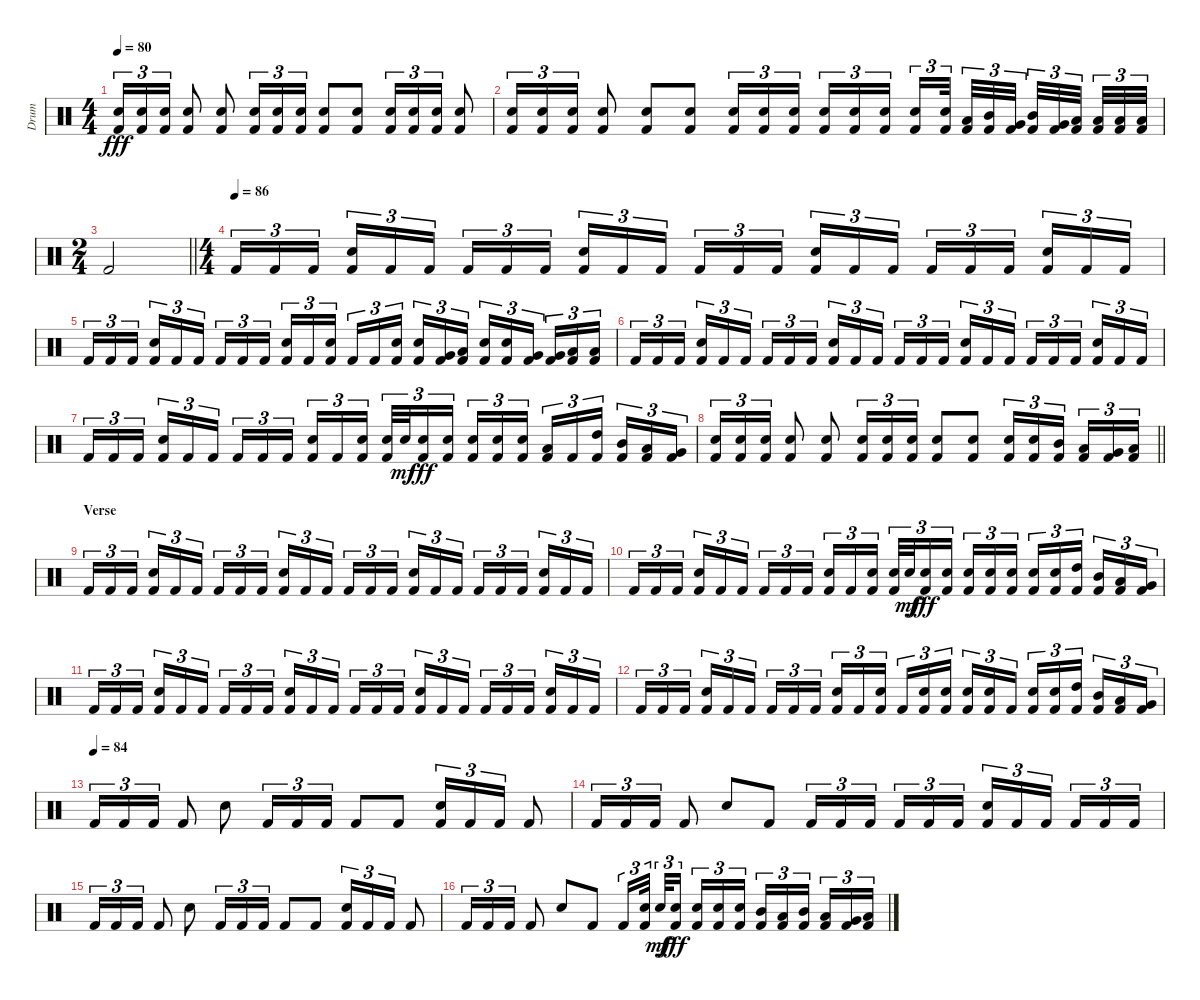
\track ("Drum" "Drum") {instrument percussion}
\staff {score}
\articulation defaults
\ts (4 4)
\tempo 80
\clef neutral
\ks c
("Snare (hit) 2" "Kick (hit) 2").16{tu (3 2) dy fff} ("Snare (hit) 2" "Kick (hit) 2").16{tu (3 2)} ("Snare (hit) 2" "Kick (hit) 2").16{tu (3 2)} ("Snare (hit) 2" "Kick (hit) 2").8 ("Snare (hit) 2" "Kick (hit) 2").8 ("Snare (hit) 2" "Kick (hit) 2").16{tu (3 2)} ("Snare (hit) 2" "Kick (hit) 2").16{tu (3 2)} ("Snare (hit) 2" "Kick (hit) 2").16{tu (3 2)} ("Snare (hit) 2" "Kick (hit) 2").8 ("Snare (hit) 2" "Kick (hit) 2").8 ("Snare (hit) 2" "Kick (hit) 2").16{tu (3 2)} ("Snare (hit) 2" "Kick (hit) 2").16{tu (3 2)} ("Snare (hit) 2" "Kick (hit) 2").16{tu (3 2)} ("Snare (hit) 2" "Kick (hit) 2").8 |
("Snare (hit) 2" "Kick (hit) 2").16{tu (3 2)} ("Snare (hit) 2" "Kick (hit) 2").16{tu (3 2)} ("Snare (hit) 2" "Kick (hit) 2").16{tu (3 2)} ("Snare (hit) 2" "Kick (hit) 2").8 ("Snare (hit) 2" "Kick (hit) 2").8 ("Snare (hit) 2" "Kick (hit) 2").8 ("Snare (hit) 2" "Kick (hit) 2").16{tu (3 2)} ("Snare (hit) 2" "Kick (hit) 2").16{tu (3 2)} ("Snare (hit) 2" "Kick (hit) 2").16{tu (3 2) beam splitsecondary} ("Snare (hit) 2" "Kick (hit) 2").16{tu (3 2)} ("Snare (hit) 2" "Kick (hit) 2").16{tu (3 2)} ("Snare (hit) 2" "Kick (hit) 2").16{tu (3 2)} ("Snare (hit) 2" "Kick (hit) 2").16{tu (3 2)} ("Snare (hit) 2" "Kick (hit) 2").32{tu (3 2) beam splitsecondary} ("Low Floor Tom (hit)" "Kick (hit) 2").32{tu (3 2)} ("Mid Tom (hit)" "Kick (hit) 2").32{tu (3 2)} ("Very Low Tom (hit)" "Kick (hit) 2").32{tu (3 2) beam splitsecondary} ("Mid Tom (hit)" "Kick (hit) 2").32{tu (3 2)} ("Very Low Tom (hit)" "Kick (hit) 2").32{tu (3 2)} ("Low Tom (hit)" "Kick (hit) 2").32{tu (3 2) beam splitsecondary} ("Low Floor Tom (hit)" "Kick (hit) 2").32{tu (3 2)} ("Low Tom (hit)" "Kick (hit) 2").32{tu (3 2)} ("Low Floor Tom (hit)" "Kick (hit) 2").32{tu (3 2)} |
\ts (2 4)
\barLineRight lightlight "Kick (hit) 2".2
|
\ts (4 4)
\section ("" "")
\tempo (86)
"Kick (hit) 2".16{tu (3 2)} "Kick (hit) 2".16{tu (3 2)} "Kick (hit) 2".16{tu (3 2) beam splitsecondary} ("Snare (hit) 2" "Kick (hit) 2").16{tu (3 2)} "Kick (hit) 2".16{tu (3 2)} "Kick (hit) 2".16{tu (3 2)} "Kick (hit) 2".16{tu (3 2)} "Kick (hit) 2".16{tu (3 2)} "Kick (hit) 2".16{tu (3 2) beam splitsecondary} ("Snare (hit) 2" "Kick (hit) 2").16{tu (3 2)} "Kick (hit) 2".16{tu (3 2)} "Kick (hit) 2".16{tu (3 2)} "Kick (hit) 2".16{tu (3 2)} "Kick (hit) 2".16{tu (3 2)} "Kick (hit) 2".16{tu (3 2) beam splitsecondary} ("Snare (hit) 2" "Kick (hit) 2").16{tu (3 2)} "Kick (hit) 2".16{tu (3 2)} "Kick (hit) 2".16{tu (3 2)} "Kick (hit) 2".16{tu (3 2)} "Kick (hit) 2".16{tu (3 2)} "Kick (hit) 2".16{tu (3 2) beam splitsecondary} ("Snare (hit) 2" "Kick (hit) 2").16{tu (3 2)} "Kick (hit) 2".16{tu (3 2)} "Kick (hit) 2".16{tu (3 2)} |
"Kick (hit) 2".16{tu (3 2)} "Kick (hit) 2".16{tu (3 2)} "Kick (hit) 2".16{tu (3 2) beam splitsecondary} ("Snare (hit) 2" "Kick (hit) 2").16{tu (3 2)} "Kick (hit) 2".16{tu (3 2)} "Kick (hit) 2".16{tu (3 2)} "Kick (hit) 2".16{tu (3 2)} "Kick (hit) 2".16{tu (3 2)} "Kick (hit) 2".16{tu (3 2) beam splitsecondary} ("Snare (hit) 2" "Kick (hit) 2").16{tu (3 2)} "Kick (hit) 2".16{tu (3 2)} ("Snare (hit) 2" "Kick (hit) 2").16{tu (3 2)} "Kick (hit) 2".16{tu (3 2)} "Kick (hit) 2".16{tu (3 2)} ("Snare (hit) 2" "Kick (hit) 2").16{tu (3 2) beam splitsecondary} ("Snare (hit) 2" "Kick (hit) 2").16{tu (3 2)} ("Very Low Tom (hit)" "Kick (hit) 2").16{tu (3 2)} ("Low Floor Tom (hit)" "Kick (hit) 2").16{tu (3 2)} ("Snare (hit) 2" "Kick (hit) 2").16{tu (3 2)} ("Snare (hit) 2" "Kick (hit) 2").16{tu (3 2)} ("Very Low Tom (hit)" "Kick (hit) 2").16{tu (3 2) beam splitsecondary} ("Very Low Tom (hit)" "Kick (hit) 2").16{tu (3 2)} ("Low Floor Tom (hit)" "Kick (hit) 2").16{tu (3 2)} ("Low Floor Tom (hit)" "Kick (hit) 2").16{tu (3 2)} |
"Kick (hit) 2".16{tu (3 2)} "Kick (hit) 2".16{tu (3 2)} "Kick (hit) 2".16{tu (3 2) beam splitsecondary} ("Snare (hit) 2" "Kick (hit) 2").16{tu (3 2)} "Kick (hit) 2".16{tu (3 2)} "Kick (hit) 2".16{tu (3 2)} "Kick (hit) 2".16{tu (3 2)} "Kick (hit) 2".16{tu (3 2)} "Kick (hit) 2".16{tu (3 2) beam splitsecondary} ("Snare (hit) 2" "Kick (hit) 2").16{tu (3 2)} "Kick (hit) 2".16{tu (3 2)} "Kick (hit) 2".16{tu (3 2)} "Kick (hit) 2".16{tu (3 2)} "Kick (hit) 2".16{tu (3 2)} "Kick (hit) 2".16{tu (3 2) beam splitsecondary} ("Snare (hit) 2" "Kick (hit) 2").16{tu (3 2)} "Kick (hit) 2".16{tu (3 2)} "Kick (hit) 2".16{tu (3 2)} "Kick (hit) 2".16{tu (3 2)} "Kick (hit) 2".16{tu (3 2)} "Kick (hit) 2".16{tu (3 2) beam splitsecondary} ("Snare (hit) 2" "Kick (hit) 2").16{tu (3 2)} "Kick (hit) 2".16{tu (3 2)} "Kick (hit) 2".16{tu (3 2)} |
"Kick (hit) 2".16{tu (3 2)} "Kick (hit) 2".16{tu (3 2)} "Kick (hit) 2".16{tu (3 2) beam splitsecondary} ("Snare (hit) 2" "Kick (hit) 2").16{tu (3 2)} "Kick (hit) 2".16{tu (3 2)} "Kick (hit) 2".16{tu (3 2)} "Kick (hit) 2".16{tu (3 2)} "Kick (hit) 2".16{tu (3 2)} "Kick (hit) 2".16{tu (3 2) beam splitsecondary} ("Snare (hit) 2" "Kick (hit) 2").16{tu (3 2)} "Kick (hit) 2".16{tu (3 2)} ("Snare (hit) 2" "Kick (hit) 2").16{tu (3 2)} ("Snare (hit) 2" "Kick (hit) 2").32{tu (3 2)} "Snare (hit) 2".32{tu (3 2) dy mf} ("Snare (hit) 2" "Kick (hit) 2").16{tu (3 2) dy fff} ("Snare (hit) 2" "Kick (hit) 2").16{tu (3 2) beam splitsecondary} ("Snare (hit) 2" "Kick (hit) 2").16{tu (3 2)} ("Snare (hit) 2" "Kick (hit) 2").16{tu (3 2)} ("Snare (hit) 2" "Kick (hit) 2").16{tu (3 2)} ("Low Tom (hit)" "Kick (hit) 2").16{tu (3 2)} "Kick (hit) 2".16{tu (3 2)} ("High Tom (hit)" "Kick (hit) 2").16{tu (3 2) beam splitsecondary} ("Mid Tom (hit)" "Kick (hit) 2").16{tu (3 2)} ("Low Tom (hit)" "Kick (hit) 2").16{tu (3 2)} ("Very Low Tom (hit)" "Kick (hit) 2").16{tu (3 2)} |
\barLineRight lightlight
("Snare (hit) 2" "Kick (hit) 2").16{tu (3 2)} ("Snare (hit) 2" "Kick (hit) 2").16{tu (3 2)} ("Snare (hit) 2" "Kick (hit) 2").16{tu (3 2)} ("Snare (hit) 2" "Kick (hit) 2").8 ("Snare (hit) 2" "Kick (hit) 2").8 ("Snare (hit) 2" "Kick (hit) 2").16{tu (3 2)} ("Snare (hit) 2" "Kick (hit) 2").16{tu (3 2)} ("Snare (hit) 2" "Kick (hit) 2").16{tu (3 2)} ("Snare (hit) 2" "Kick (hit) 2").8 ("Snare (hit) 2" "Kick (hit) 2").8 ("Snare (hit) 2" "Kick (hit) 2").16{tu (3 2)} ("Snare (hit) 2" "Kick (hit) 2").16{tu (3 2)} ("Mid Tom (hit)" "Kick (hit) 2").16{tu (3 2) beam splitsecondary} ("Low Tom (hit)" "Kick (hit) 2").16{tu (3 2)} ("Very Low Tom (hit)" "Kick (hit) 2").16{tu (3 2)} ("Low Floor Tom (hit)" "Kick (hit) 2").16{tu (3 2)} |
\section ("" "Verse")
"Kick (hit) 2".16{tu (3 2)} "Kick (hit) 2".16{tu (3 2)} "Kick (hit) 2".16{tu (3 2) beam splitsecondary} ("Snare (hit) 2" "Kick (hit) 2").16{tu (3 2)} "Kick (hit) 2".16{tu (3 2)} "Kick (hit) 2".16{tu (3 2)} "Kick (hit) 2".16{tu (3 2)} "Kick (hit) 2".16{tu (3 2)} "Kick (hit) 2".16{tu (3 2) beam splitsecondary} ("Snare (hit) 2" "Kick (hit) 2").16{tu (3 2)} "Kick (hit) 2".16{tu (3 2)} "Kick (hit) 2".16{tu (3 2)} "Kick (hit) 2".16{tu (3 2)} "Kick (hit) 2".16{tu (3 2)} "Kick (hit) 2".16{tu (3 2) beam splitsecondary} ("Snare (hit) 2" "Kick (hit) 2").16{tu (3 2)} "Kick (hit) 2".16{tu (3 2)} "Kick (hit) 2".16{tu (3 2)} "Kick (hit) 2".16{tu (3 2)} "Kick (hit) 2".16{tu (3 2)} "Kick (hit) 2".16{tu (3 2) beam splitsecondary} ("Snare (hit) 2" "Kick (hit) 2").16{tu (3 2)} "Kick (hit) 2".16{tu (3 2)} "Kick (hit) 2".16{tu (3 2)} |
"Kick (hit) 2".16{tu (3 2)} "Kick (hit) 2".16{tu (3 2)} "Kick (hit) 2".16{tu (3 2) beam splitsecondary} ("Snare (hit) 2" "Kick (hit) 2").16{tu (3 2)} "Kick (hit) 2".16{tu (3 2)} "Kick (hit) 2".16{tu (3 2)} "Kick (hit) 2".16{tu (3 2)} "Kick (hit) 2".16{tu (3 2)} "Kick (hit) 2".16{tu (3 2) beam splitsecondary} ("Snare (hit) 2" "Kick (hit) 2").16{tu (3 2)} "Kick (hit) 2".16{tu (3 2)} ("Snare (hit) 2" "Kick (hit) 2").16{tu (3 2)} ("Snare (hit) 2" "Kick (hit) 2").32{tu (3 2)} "Snare (hit) 2".32{tu (3 2) dy mf} ("Snare (hit) 2" "Kick (hit) 2").16{tu (3 2) dy fff} ("Snare (hit) 2" "Kick (hit) 2").16{tu (3 2) beam splitsecondary} ("Snare (hit) 2" "Kick (hit) 2").16{tu (3 2)} ("Snare (hit) 2" "Kick (hit) 2").16{tu (3 2)} ("Snare (hit) 2" "Kick (hit) 2").16{tu (3 2)} ("Snare (hit) 2" "Kick (hit) 2").16{tu (3 2)} ("Snare (hit) 2" "Kick (hit) 2").16{tu (3 2)} ("High Tom (hit)" "Kick (hit) 2").16{tu (3 2) beam splitsecondary} ("Mid Tom (hit)" "Kick (hit) 2").16{tu (3 2)} ("Low Tom (hit)" "Kick (hit) 2").16{tu (3 2)} ("Very Low Tom (hit)" "Kick (hit) 2").16{tu (3 2)} |
"Kick (hit) 2".16{tu (3 2)} "Kick (hit) 2".16{tu (3 2)} "Kick (hit) 2".16{tu (3 2) beam splitsecondary} ("Snare (hit) 2" "Kick (hit) 2").16{tu (3 2)} "Kick (hit) 2".16{tu (3 2)} "Kick (hit) 2".16{tu (3 2)} "Kick (hit) 2".16{tu (3 2)} "Kick (hit) 2".16{tu (3 2)} "Kick (hit) 2".16{tu (3 2) beam splitsecondary} ("Snare (hit) 2" "Kick (hit) 2").16{tu (3 2)} "Kick (hit) 2".16{tu (3 2)} "Kick (hit) 2".16{tu (3 2)} "Kick (hit) 2".16{tu (3 2)} "Kick (hit) 2".16{tu (3 2)} "Kick (hit) 2".16{tu (3 2) beam splitsecondary} ("Snare (hit) 2" "Kick (hit) 2").16{tu (3 2)} "Kick (hit) 2".16{tu (3 2)} "Kick (hit) 2".16{tu (3 2)} "Kick (hit) 2".16{tu (3 2)} "Kick (hit) 2".16{tu (3 2)} "Kick (hit) 2".16{tu (3 2) beam splitsecondary} ("Snare (hit) 2" "Kick (hit) 2").16{tu (3 2)} "Kick (hit) 2".16{tu (3 2)} "Kick (hit) 2".16{tu (3 2)} |
"Kick (hit) 2".16{tu (3 2)} "Kick (hit) 2".16{tu (3 2)} "Kick (hit) 2".16{tu (3 2) beam splitsecondary} ("Snare (hit) 2" "Kick (hit) 2").16{tu (3 2)} "Kick (hit) 2".16{tu (3 2)} "Kick (hit) 2".16{tu (3 2)} "Kick (hit) 2".16{tu (3 2)} "Kick (hit) 2".16{tu (3 2)} "Kick (hit) 2".16{tu (3 2) beam splitsecondary} ("Snare (hit) 2" "Kick (hit) 2").16{tu (3 2)} "Kick (hit) 2".16{tu (3 2)} ("Snare (hit) 2" "Kick (hit) 2").16{tu (3 2)} "Kick (hit) 2".16{tu (3 2)} ("Snare (hit) 2" "Kick (hit) 2").16{tu (3 2)} ("Snare (hit) 2" "Kick (hit) 2").16{tu (3 2) beam splitsecondary} ("Snare (hit) 2" "Kick (hit) 2").16{tu (3 2)} ("Snare (hit) 2" "Kick (hit) 2").16{tu (3 2)} "Kick (hit) 2".16{tu (3 2)} ("Snare (hit) 2" "Kick (hit) 2").16{tu (3 2)} ("Snare (hit) 2" "Kick (hit) 2").16{tu (3 2)} ("High Tom (hit)" "Kick (hit) 2").16{tu (3 2) beam splitsecondary} ("Mid Tom (hit)" "Kick (hit) 2").16{tu (3 2)} ("Low Tom (hit)" "Kick (hit) 2").16{tu (3 2)} ("Very Low Tom (hit)" "Kick (hit) 2").16{tu (3 2)} |
\tempo (84)
"Kick (hit) 2".16{tu (3 2)} "Kick (hit) 2".16{tu (3 2)} "Kick (hit) 2".16{tu (3 2)} "Kick (hit) 2".8 "Snare (hit) 2".8 "Kick (hit) 2".16{tu (3 2)} "Kick (hit) 2".16{tu (3 2)} "Kick (hit) 2".16{tu (3 2)} "Kick (hit) 2".8 "Kick (hit) 2".8 ("Snare (hit) 2" "Kick (hit) 2").16{tu (3 2)} "Kick (hit) 2".16{tu (3 2)} "Kick (hit) 2".16{tu (3 2)} "Kick (hit) 2".8 |
"Kick (hit) 2".16{tu (3 2)} "Kick (hit) 2".16{tu (3 2)} "Kick (hit) 2".16{tu (3 2)} "Kick (hit) 2".8 "Snare (hit) 2".8 "Kick (hit) 2".8 "Kick (hit) 2".16{tu (3 2)} "Kick (hit) 2".16{tu (3 2)} "Kick (hit) 2".16{tu (3 2) beam splitsecondary} "Kick (hit) 2".16{tu (3 2)} "Kick (hit) 2".16{tu (3 2)} "Kick (hit) 2".16{tu (3 2)} ("Snare (hit) 2" "Kick (hit) 2").16{tu (3 2)} "Kick (hit) 2".16{tu (3 2)} "Kick (hit) 2".16{tu (3 2) beam splitsecondary} "Kick (hit) 2".16{tu (3 2)} "Kick (hit) 2".16{tu (3 2)} "Kick (hit) 2".16{tu (3 2)} |
"Kick (hit) 2".16{tu (3 2)} "Kick (hit) 2".16{tu (3 2)} "Kick (hit) 2".16{tu (3 2)} "Kick (hit) 2".8 "Snare (hit) 2".8 "Kick (hit) 2".16{tu (3 2)} "Kick (hit) 2".16{tu (3 2)} "Kick (hit) 2".16{tu (3 2)} "Kick (hit) 2".8 "Kick (hit) 2".8 ("Snare (hit) 2" "Kick (hit) 2").16{tu (3 2)} "Kick (hit) 2".16{tu (3 2)} "Kick (hit) 2".16{tu (3 2)} "Kick (hit) 2".8 |
"Kick (hit) 2".16{tu (3 2)} "Kick (hit) 2".16{tu (3 2)} "Kick (hit) 2".16{tu (3 2)} "Kick (hit) 2".8 "Snare (hit) 2".8 "Kick (hit) 2".8 "Kick (hit) 2".16{tu (3 2)} ("Snare (hit) 2" "Kick (hit) 2").32{tu (3 2) beam splitsecondary} "Snare (hit) 2".32{tu (3 2) dy mf} ("Snare (hit) 2" "Kick (hit) 2").16{tu (3 2) dy fff beam splitsecondary} ("Snare (hit) 2" "Kick (hit) 2").16{tu (3 2)} ("Snare (hit) 2" "Kick (hit) 2").16{tu (3 2)} ("Snare (hit) 2" "Kick (hit) 2").16{tu (3 2)} ("Mid Tom (hit)" "Kick (hit) 2").16{tu (3 2)} ("Low Tom (hit)" "Kick (hit) 2").16{tu (3 2)} ("Mid Tom (hit)" "Kick (hit) 2").16{tu (3 2) beam splitsecondary} ("Low Tom (hit)" "Kick (hit) 2").16{tu (3 2)} ("Very Low Tom (hit)" "Kick (hit) 2").16{tu (3 2)} ("Low Floor Tom (hit)" "Kick (hit) 2").16{tu (3 2)}
